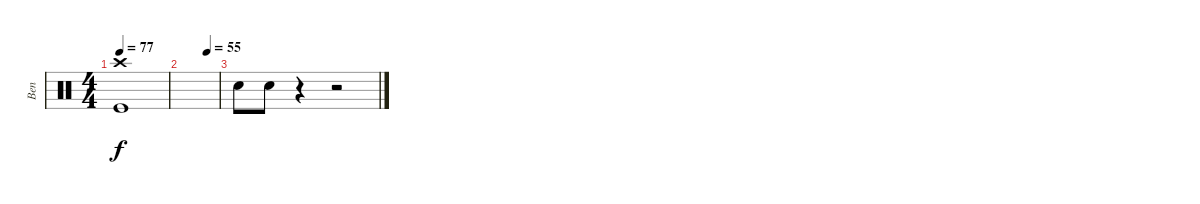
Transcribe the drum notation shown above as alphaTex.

\track ("Ben" "Ben") {instrument percussion}
\staff {score}
\articulation defaults
\ts (4 4)
\tempo 77
\clef neutral
\ks c
("Crash high (hit)" "Kick (hit)").1{dy f} |
\tempo (55 0.6875)
|
"Snare (hit) 2".8 "Snare (hit) 2".8 r.4 r.2
